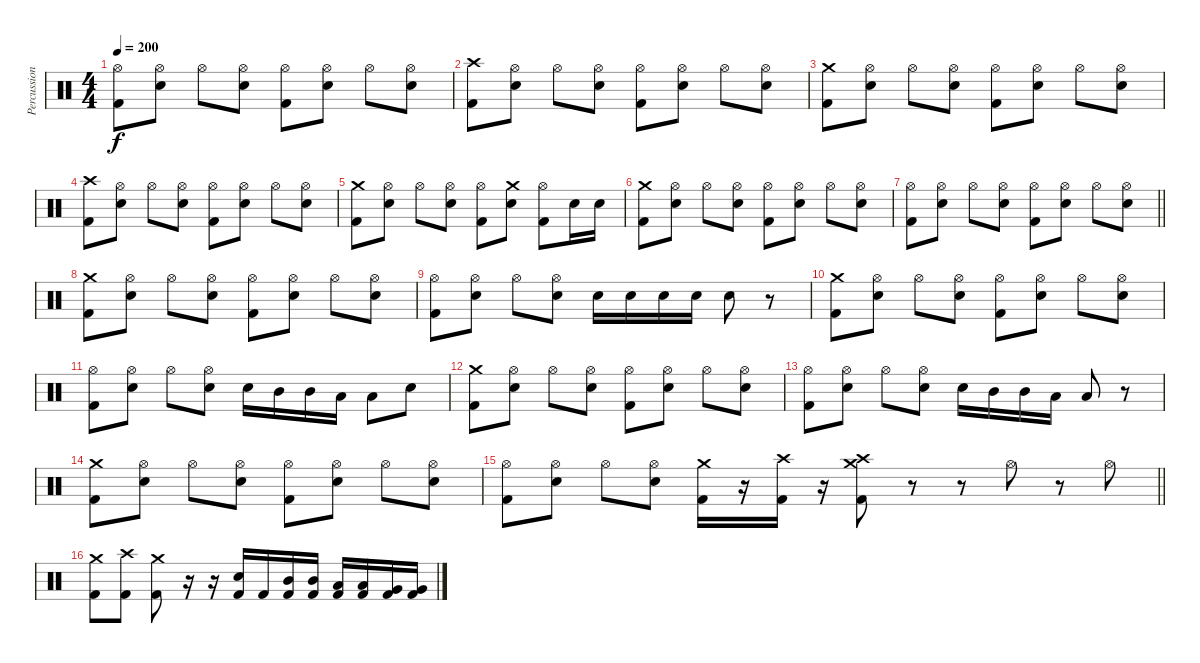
\track ("Percussion" "Percussion") {instrument percussion}
\staff {score}
\articulation defaults
\ts (4 4)
\tempo 200
\clef neutral
\ks c
("Hi-Hat (open)" "Kick (hit) 2").8{dy f} ("Hi-Hat (open)" "Electric Snare (hit)").8 "Hi-Hat (open)".8 ("Hi-Hat (open)" "Electric Snare (hit)").8 ("Hi-Hat (open)" "Kick (hit) 2").8 ("Hi-Hat (open)" "Electric Snare (hit)").8 "Hi-Hat (open)".8 ("Hi-Hat (open)" "Electric Snare (hit)").8 |
("Crash high (hit)" "Kick (hit) 2").8 ("Hi-Hat (open)" "Electric Snare (hit)").8 "Hi-Hat (open)".8 ("Hi-Hat (open)" "Electric Snare (hit)").8 ("Hi-Hat (open)" "Kick (hit) 2").8 ("Hi-Hat (open)" "Electric Snare (hit)").8 "Hi-Hat (open)".8 ("Hi-Hat (open)" "Electric Snare (hit)").8 |
("Crash medium (hit)" "Kick (hit) 2").8 ("Hi-Hat (open)" "Electric Snare (hit)").8 "Hi-Hat (open)".8 ("Hi-Hat (open)" "Electric Snare (hit)").8 ("Hi-Hat (open)" "Kick (hit) 2").8 ("Hi-Hat (open)" "Electric Snare (hit)").8 "Hi-Hat (open)".8 ("Hi-Hat (open)" "Electric Snare (hit)").8 |
("Crash high (hit)" "Kick (hit) 2").8 ("Hi-Hat (open)" "Electric Snare (hit)").8 "Hi-Hat (open)".8 ("Hi-Hat (open)" "Electric Snare (hit)").8 ("Hi-Hat (open)" "Kick (hit) 2").8 ("Hi-Hat (open)" "Electric Snare (hit)").8 "Hi-Hat (open)".8 ("Hi-Hat (open)" "Electric Snare (hit)").8 |
("Crash medium (hit)" "Kick (hit) 2").8 ("Hi-Hat (open)" "Electric Snare (hit)").8 "Hi-Hat (open)".8 ("Hi-Hat (open)" "Electric Snare (hit)").8 ("Hi-Hat (open)" "Kick (hit) 2").8 ("Crash medium (hit)" "Electric Snare (hit)").8 ("Hi-Hat (open)" "Kick (hit) 2").8 "Electric Snare (hit)".16 "Electric Snare (hit)".16 |
("Crash medium (hit)" "Kick (hit) 2").8 ("Hi-Hat (open)" "Electric Snare (hit)").8 "Hi-Hat (open)".8 ("Hi-Hat (open)" "Electric Snare (hit)").8 ("Hi-Hat (open)" "Kick (hit) 2").8 ("Hi-Hat (open)" "Electric Snare (hit)").8 "Hi-Hat (open)".8 ("Hi-Hat (open)" "Electric Snare (hit)").8 |
\barLineRight lightlight
("Hi-Hat (open)" "Kick (hit) 2").8 ("Hi-Hat (open)" "Electric Snare (hit)").8 "Hi-Hat (open)".8 ("Hi-Hat (open)" "Electric Snare (hit)").8 ("Hi-Hat (open)" "Kick (hit) 2").8 ("Hi-Hat (open)" "Electric Snare (hit)").8 "Hi-Hat (open)".8 ("Hi-Hat (open)" "Electric Snare (hit)").8 |
("Crash medium (hit)" "Kick (hit) 2").8 ("Hi-Hat (open)" "Electric Snare (hit)").8 "Hi-Hat (open)".8 ("Hi-Hat (open)" "Electric Snare (hit)").8 ("Hi-Hat (open)" "Kick (hit) 2").8 ("Hi-Hat (open)" "Electric Snare (hit)").8 "Hi-Hat (open)".8 ("Hi-Hat (open)" "Electric Snare (hit)").8 |
("Hi-Hat (open)" "Kick (hit) 2").8 ("Hi-Hat (open)" "Electric Snare (hit)").8 "Hi-Hat (open)".8 ("Hi-Hat (open)" "Electric Snare (hit)").8 "Electric Snare (hit)".16 "Electric Snare (hit)".16 "Electric Snare (hit)".16 "Electric Snare (hit)".16 "Electric Snare (hit)".8 r.8 |
("Crash medium (hit)" "Kick (hit) 2").8 ("Hi-Hat (open)" "Electric Snare (hit)").8 "Hi-Hat (open)".8 ("Hi-Hat (open)" "Electric Snare (hit)").8 ("Hi-Hat (open)" "Kick (hit) 2").8 ("Hi-Hat (open)" "Electric Snare (hit)").8 "Hi-Hat (open)".8 ("Hi-Hat (open)" "Electric Snare (hit)").8 |
("Hi-Hat (open)" "Kick (hit) 2").8 ("Hi-Hat (open)" "Electric Snare (hit)").8 "Hi-Hat (open)".8 ("Hi-Hat (open)" "Electric Snare (hit)").8 "Electric Snare (hit)".16 "Mid Tom (hit)".16 "Mid Tom (hit)".16 "Low Tom (hit)".16 "Low Tom (hit)".8 "Electric Snare (hit)".8 |
("Crash medium (hit)" "Kick (hit) 2").8 ("Hi-Hat (open)" "Electric Snare (hit)").8 "Hi-Hat (open)".8 ("Hi-Hat (open)" "Electric Snare (hit)").8 ("Hi-Hat (open)" "Kick (hit) 2").8 ("Hi-Hat (open)" "Electric Snare (hit)").8 "Hi-Hat (open)".8 ("Hi-Hat (open)" "Electric Snare (hit)").8 |
("Hi-Hat (open)" "Kick (hit) 2").8 ("Hi-Hat (open)" "Electric Snare (hit)").8 "Hi-Hat (open)".8 ("Hi-Hat (open)" "Electric Snare (hit)").8 "Electric Snare (hit)".16 "Mid Tom (hit)".16 "Mid Tom (hit)".16 "Low Tom (hit)".16 "Low Tom (hit)".8 r.8 |
("Crash medium (hit)" "Kick (hit) 2").8 ("Hi-Hat (open)" "Electric Snare (hit)").8 "Hi-Hat (open)".8 ("Hi-Hat (open)" "Electric Snare (hit)").8 ("Hi-Hat (open)" "Kick (hit) 2").8 ("Hi-Hat (open)" "Electric Snare (hit)").8 "Hi-Hat (open)".8 ("Hi-Hat (open)" "Electric Snare (hit)").8 |
\barLineRight lightlight
("Hi-Hat (open)" "Kick (hit) 2").8 ("Hi-Hat (open)" "Electric Snare (hit)").8 "Hi-Hat (open)".8 ("Hi-Hat (open)" "Electric Snare (hit)").8 ("Crash medium (hit)" "Kick (hit) 2").16 r.16 ("Crash high (hit)" "Kick (hit) 2").16 r.16 ("Crash medium (hit)" "Crash high (hit)" "Kick (hit) 2").8 r.8 r.8 "Hi-Hat (open)".8 r.8 "Hi-Hat (open)".8 |
("Crash medium (hit)" "Kick (hit) 2").8 ("Crash high (hit)" "Kick (hit) 2").8 ("Crash medium (hit)" "Kick (hit) 2").8 r.16 r.16 ("Electric Snare (hit)" "Kick (hit) 2").16 "Kick (hit) 2".16 ("Mid Tom (hit)" "Kick (hit) 2").16 ("Mid Tom (hit)" "Kick (hit) 2").16 ("Low Tom (hit)" "Kick (hit) 2").16 ("Low Tom (hit)" "Kick (hit) 2").16 ("Very Low Tom (hit)" "Kick (hit) 2").16 ("Very Low Tom (hit)" "Kick (hit) 2").16
